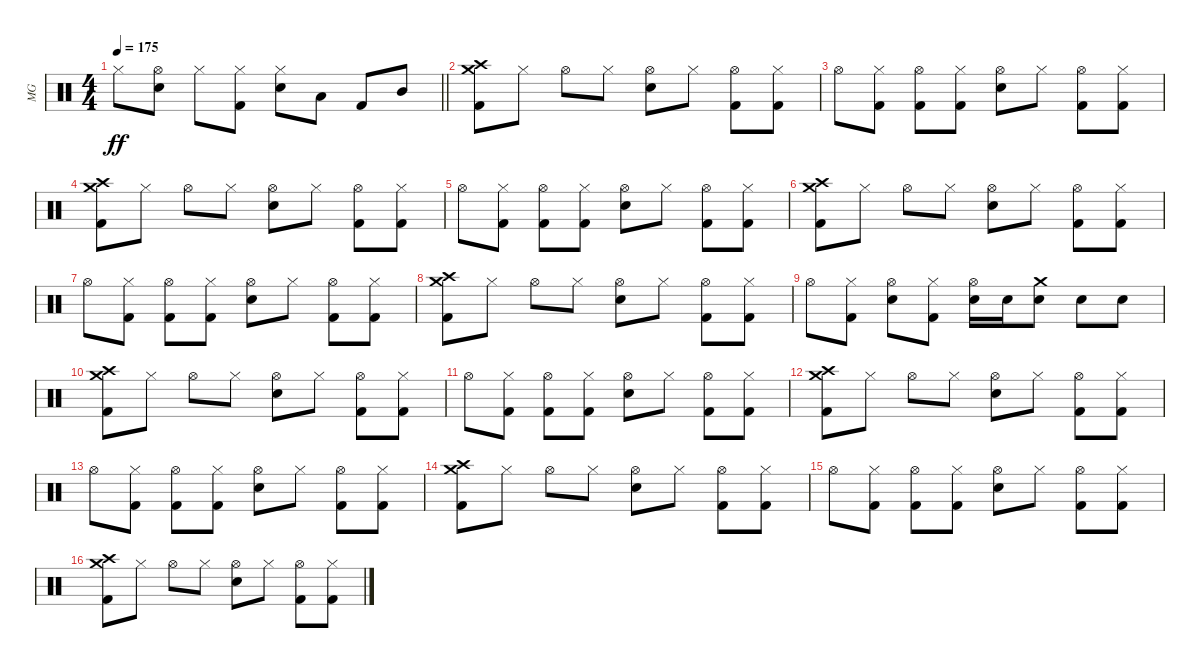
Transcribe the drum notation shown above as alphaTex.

\track ("MG" "MG") {instrument percussion}
\staff {score}
\articulation defaults
\ts (4 4)
\tempo 175
\clef neutral
\barLineRight lightlight
\ks c "Hi-Hat (closed)".8{dy ff}
("Hi-Hat (open)" "Electric Snare (hit)").8 "Hi-Hat (closed)".8 ("Hi-Hat (closed)" "Kick (hit) 2").8 ("Hi-Hat (closed)" "Electric Snare (hit)").8 "Low Tom (hit)".8 "Kick (hit) 2".8 "Mid Tom (hit)".8 |
\section ("" "")
("Crash medium (hit)" "Crash high (hit)" "Kick (hit) 2").8 "Hi-Hat (closed)".8 "Hi-Hat (open)".8 "Hi-Hat (closed)".8 ("Hi-Hat (open)" "Electric Snare (hit)").8 "Hi-Hat (closed)".8 ("Hi-Hat (open)" "Kick (hit) 2").8 ("Hi-Hat (closed)" "Kick (hit) 2").8 |
"Hi-Hat (open)".8 ("Hi-Hat (closed)" "Kick (hit) 2").8 ("Hi-Hat (open)" "Kick (hit) 2").8 ("Hi-Hat (closed)" "Kick (hit) 2").8 ("Hi-Hat (open)" "Electric Snare (hit)").8 "Hi-Hat (closed)".8 ("Hi-Hat (open)" "Kick (hit) 2").8 ("Hi-Hat (closed)" "Kick (hit) 2").8 |
("Crash medium (hit)" "Crash high (hit)" "Kick (hit) 2").8 "Hi-Hat (closed)".8 "Hi-Hat (open)".8 "Hi-Hat (closed)".8 ("Hi-Hat (open)" "Electric Snare (hit)").8 "Hi-Hat (closed)".8 ("Hi-Hat (open)" "Kick (hit) 2").8 ("Hi-Hat (closed)" "Kick (hit) 2").8 |
"Hi-Hat (open)".8 ("Hi-Hat (closed)" "Kick (hit) 2").8 ("Hi-Hat (open)" "Kick (hit) 2").8 ("Hi-Hat (closed)" "Kick (hit) 2").8 ("Hi-Hat (open)" "Electric Snare (hit)").8 "Hi-Hat (closed)".8 ("Hi-Hat (open)" "Kick (hit) 2").8 ("Hi-Hat (closed)" "Kick (hit) 2").8 |
("Crash medium (hit)" "Crash high (hit)" "Kick (hit) 2").8 "Hi-Hat (closed)".8 "Hi-Hat (open)".8 "Hi-Hat (closed)".8 ("Hi-Hat (open)" "Electric Snare (hit)").8 "Hi-Hat (closed)".8 ("Hi-Hat (open)" "Kick (hit) 2").8 ("Hi-Hat (closed)" "Kick (hit) 2").8 |
"Hi-Hat (open)".8 ("Hi-Hat (closed)" "Kick (hit) 2").8 ("Hi-Hat (open)" "Kick (hit) 2").8 ("Hi-Hat (closed)" "Kick (hit) 2").8 ("Hi-Hat (open)" "Electric Snare (hit)").8 "Hi-Hat (closed)".8 ("Hi-Hat (open)" "Kick (hit) 2").8 ("Hi-Hat (closed)" "Kick (hit) 2").8 |
("Crash medium (hit)" "Crash high (hit)" "Kick (hit) 2").8 "Hi-Hat (closed)".8 "Hi-Hat (open)".8 "Hi-Hat (closed)".8 ("Hi-Hat (open)" "Electric Snare (hit)").8 "Hi-Hat (closed)".8 ("Hi-Hat (open)" "Kick (hit) 2").8 ("Hi-Hat (closed)" "Kick (hit) 2").8 |
"Hi-Hat (open)".8 ("Hi-Hat (closed)" "Kick (hit) 2").8 ("Hi-Hat (open)" "Electric Snare (hit)").8 ("Hi-Hat (closed)" "Kick (hit) 2").8 ("Hi-Hat (open)" "Electric Snare (hit)").16 "Electric Snare (hit)".16 ("Crash medium (hit)" "Electric Snare (hit)").8 "Electric Snare (hit)".8 "Electric Snare (hit)".8 |
("Crash medium (hit)" "Crash high (hit)" "Kick (hit) 2").8 "Hi-Hat (closed)".8 "Hi-Hat (open)".8 "Hi-Hat (closed)".8 ("Hi-Hat (open)" "Electric Snare (hit)").8 "Hi-Hat (closed)".8 ("Hi-Hat (open)" "Kick (hit) 2").8 ("Hi-Hat (closed)" "Kick (hit) 2").8 |
"Hi-Hat (open)".8 ("Hi-Hat (closed)" "Kick (hit) 2").8 ("Hi-Hat (open)" "Kick (hit) 2").8 ("Hi-Hat (closed)" "Kick (hit) 2").8 ("Hi-Hat (open)" "Electric Snare (hit)").8 "Hi-Hat (closed)".8 ("Hi-Hat (open)" "Kick (hit) 2").8 ("Hi-Hat (closed)" "Kick (hit) 2").8 |
("Crash medium (hit)" "Crash high (hit)" "Kick (hit) 2").8 "Hi-Hat (closed)".8 "Hi-Hat (open)".8 "Hi-Hat (closed)".8 ("Hi-Hat (open)" "Electric Snare (hit)").8 "Hi-Hat (closed)".8 ("Hi-Hat (open)" "Kick (hit) 2").8 ("Hi-Hat (closed)" "Kick (hit) 2").8 |
"Hi-Hat (open)".8 ("Hi-Hat (closed)" "Kick (hit) 2").8 ("Hi-Hat (open)" "Kick (hit) 2").8 ("Hi-Hat (closed)" "Kick (hit) 2").8 ("Hi-Hat (open)" "Electric Snare (hit)").8 "Hi-Hat (closed)".8 ("Hi-Hat (open)" "Kick (hit) 2").8 ("Hi-Hat (closed)" "Kick (hit) 2").8 |
("Crash medium (hit)" "Crash high (hit)" "Kick (hit) 2").8 "Hi-Hat (closed)".8 "Hi-Hat (open)".8 "Hi-Hat (closed)".8 ("Hi-Hat (open)" "Electric Snare (hit)").8 "Hi-Hat (closed)".8 ("Hi-Hat (open)" "Kick (hit) 2").8 ("Hi-Hat (closed)" "Kick (hit) 2").8 |
"Hi-Hat (open)".8 ("Hi-Hat (closed)" "Kick (hit) 2").8 ("Hi-Hat (open)" "Kick (hit) 2").8 ("Hi-Hat (closed)" "Kick (hit) 2").8 ("Hi-Hat (open)" "Electric Snare (hit)").8 "Hi-Hat (closed)".8 ("Hi-Hat (open)" "Kick (hit) 2").8 ("Hi-Hat (closed)" "Kick (hit) 2").8 |
("Crash medium (hit)" "Crash high (hit)" "Kick (hit) 2").8 "Hi-Hat (closed)".8 "Hi-Hat (open)".8 "Hi-Hat (closed)".8 ("Hi-Hat (open)" "Electric Snare (hit)").8 "Hi-Hat (closed)".8 ("Hi-Hat (open)" "Kick (hit) 2").8 ("Hi-Hat (closed)" "Kick (hit) 2").8
